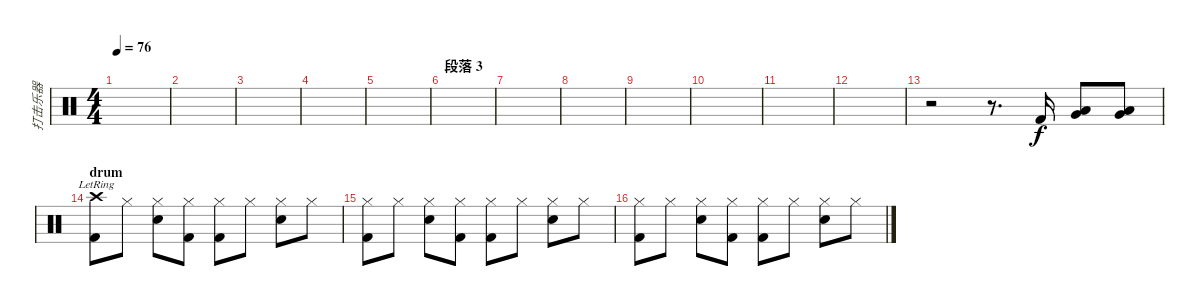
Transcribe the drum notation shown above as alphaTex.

\track ("打击乐器" "打击乐器") {instrument percussion}
\staff {score}
\articulation defaults
\ts (4 4)
\tempo 76
\clef neutral
\ks c
|
|
|
|
|
\section ("" "段落 3")
|
|
|
|
|
|
|
r.2 r.8{d} "Kick (hit) 2".16 ("Low Tom (hit)" "Very Low Tom (hit)").8{dy f} ("Very Low Tom (hit)" "Low Floor Tom (hit)").8 |
\section ("" "drum")
("Crash high (hit)"{lr} "Kick (hit) 2").8 "Hi-Hat (closed)".8 ("Hi-Hat (closed)" "Snare (hit) 2").8 ("Hi-Hat (closed)" "Kick (hit) 2").8 ("Hi-Hat (closed)" "Kick (hit) 2").8 "Hi-Hat (closed)".8 ("Hi-Hat (closed)" "Snare (hit) 2").8 "Hi-Hat (closed)".8 |
("Hi-Hat (closed)" "Kick (hit) 2").8 "Hi-Hat (closed)".8 ("Hi-Hat (closed)" "Snare (hit) 2").8 ("Hi-Hat (closed)" "Kick (hit) 2").8 ("Hi-Hat (closed)" "Kick (hit) 2").8 "Hi-Hat (closed)".8 ("Hi-Hat (closed)" "Snare (hit) 2").8 "Hi-Hat (closed)".8 |
("Hi-Hat (closed)" "Kick (hit) 2").8 "Hi-Hat (closed)".8 ("Hi-Hat (closed)" "Snare (hit) 2").8 ("Hi-Hat (closed)" "Kick (hit) 2").8 ("Hi-Hat (closed)" "Kick (hit) 2").8 "Hi-Hat (closed)".8 ("Hi-Hat (closed)" "Snare (hit) 2").8 "Hi-Hat (closed)".8
